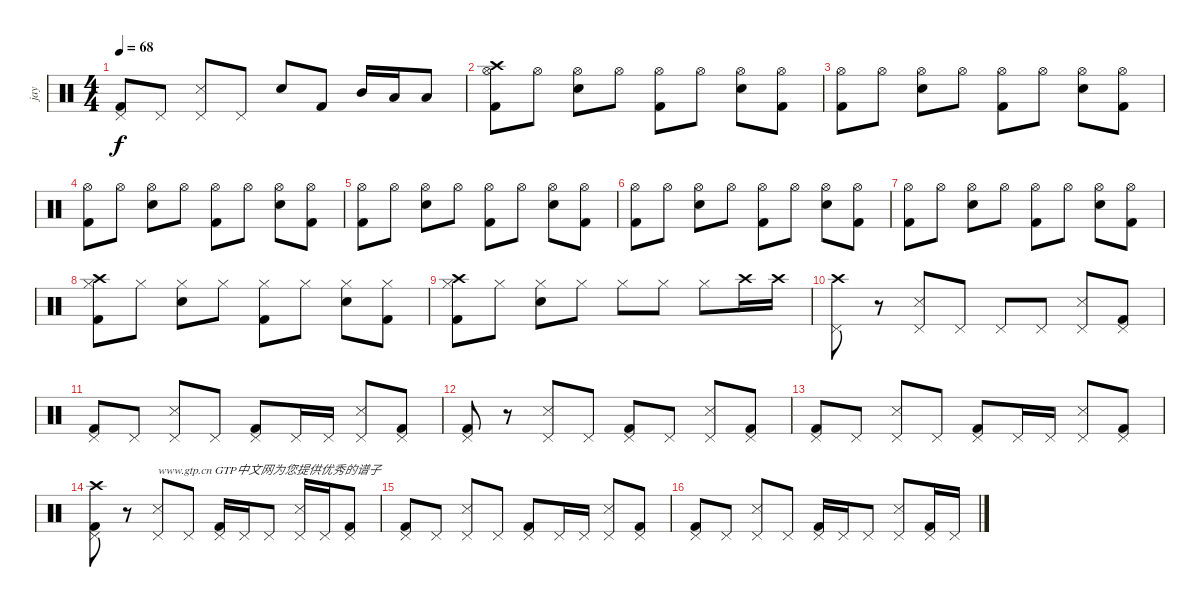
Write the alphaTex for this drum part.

\track ("jay" "jay") {instrument percussion}
\staff {score}
\articulation defaults
\ts (4 4)
\tempo 68
\clef neutral
\ks c
("Kick (hit) 2" "Pedal Hi-Hat (hit)").8{dy f} "Pedal Hi-Hat (hit)".8 ("Snare (side stick) 3" "Pedal Hi-Hat (hit)").8 "Pedal Hi-Hat (hit)".8 "Snare (hit) 2".8 "Kick (hit) 2".8 "Mid Tom (hit)".16 "Low Tom (hit)".16 "Low Floor Tom (hit)".8 |
("Crash high (hit)" "Kick (hit) 2" "Hi-Hat (open)").8 "Hi-Hat (open)".8 ("Snare (hit) 2" "Hi-Hat (open)").8 "Hi-Hat (open)".8 ("Kick (hit) 2" "Hi-Hat (open)").8 "Hi-Hat (open)".8 ("Snare (hit) 2" "Hi-Hat (open)").8 ("Kick (hit) 2" "Hi-Hat (open)").8 |
("Kick (hit) 2" "Hi-Hat (open)").8 "Hi-Hat (open)".8 ("Snare (hit) 2" "Hi-Hat (open)").8 "Hi-Hat (open)".8 ("Kick (hit) 2" "Hi-Hat (open)").8 "Hi-Hat (open)".8 ("Snare (hit) 2" "Hi-Hat (open)").8 ("Kick (hit) 2" "Hi-Hat (open)").8 |
("Kick (hit) 2" "Hi-Hat (open)").8 "Hi-Hat (open)".8 ("Snare (hit) 2" "Hi-Hat (open)").8 "Hi-Hat (open)".8 ("Kick (hit) 2" "Hi-Hat (open)").8 "Hi-Hat (open)".8 ("Snare (hit) 2" "Hi-Hat (open)").8 ("Kick (hit) 2" "Hi-Hat (open)").8 |
("Kick (hit) 2" "Hi-Hat (open)").8 "Hi-Hat (open)".8 ("Snare (hit) 2" "Hi-Hat (open)").8 "Hi-Hat (open)".8 ("Kick (hit) 2" "Hi-Hat (open)").8 "Hi-Hat (open)".8 ("Snare (hit) 2" "Hi-Hat (open)").8 ("Kick (hit) 2" "Hi-Hat (open)").8 |
("Kick (hit) 2" "Hi-Hat (open)").8 "Hi-Hat (open)".8 ("Snare (hit) 2" "Hi-Hat (open)").8 "Hi-Hat (open)".8 ("Kick (hit) 2" "Hi-Hat (open)").8 "Hi-Hat (open)".8 ("Snare (hit) 2" "Hi-Hat (open)").8 ("Kick (hit) 2" "Hi-Hat (open)").8 |
("Kick (hit) 2" "Hi-Hat (open)").8 "Hi-Hat (open)".8 ("Snare (hit) 2" "Hi-Hat (open)").8 "Hi-Hat (open)".8 ("Kick (hit) 2" "Hi-Hat (open)").8 "Hi-Hat (open)".8 ("Snare (hit) 2" "Hi-Hat (open)").8 ("Kick (hit) 2" "Hi-Hat (open)").8 |
("Crash high (hit)" "Kick (hit) 2" "Hi-Hat (closed)").8 "Hi-Hat (closed)".8 ("Snare (hit) 2" "Hi-Hat (closed)").8 "Hi-Hat (closed)".8 ("Kick (hit) 2" "Hi-Hat (closed)").8 "Hi-Hat (closed)".8 ("Snare (hit) 2" "Hi-Hat (closed)").8 ("Kick (hit) 2" "Hi-Hat (closed)").8 |
("Crash high (hit)" "Kick (hit) 2" "Hi-Hat (closed)").8 "Hi-Hat (closed)".8 ("Snare (hit) 2" "Hi-Hat (closed)").8 "Hi-Hat (closed)".8 "Hi-Hat (closed)".8 "Hi-Hat (closed)".8 "Hi-Hat (closed)".8 "Crash high (hit)".16 "Crash high (hit)".16 |
("Crash high (hit)" "Pedal Hi-Hat (hit)").8 r.8 ("Snare (side stick) 3" "Pedal Hi-Hat (hit)").8 "Pedal Hi-Hat (hit)".8 "Pedal Hi-Hat (hit)".8 "Pedal Hi-Hat (hit)".8 ("Snare (side stick) 3" "Pedal Hi-Hat (hit)").8 ("Kick (hit) 2" "Pedal Hi-Hat (hit)").8 |
("Kick (hit) 2" "Pedal Hi-Hat (hit)").8 "Pedal Hi-Hat (hit)".8 ("Snare (side stick) 3" "Pedal Hi-Hat (hit)").8 "Pedal Hi-Hat (hit)".8 ("Kick (hit) 2" "Pedal Hi-Hat (hit)").8 "Pedal Hi-Hat (hit)".16 "Pedal Hi-Hat (hit)".16 ("Snare (side stick) 3" "Pedal Hi-Hat (hit)").8 ("Kick (hit) 2" "Pedal Hi-Hat (hit)").8 |
("Kick (hit) 2" "Pedal Hi-Hat (hit)").8 r.8 ("Snare (side stick) 3" "Pedal Hi-Hat (hit)").8 "Pedal Hi-Hat (hit)".8 ("Kick (hit) 2" "Pedal Hi-Hat (hit)").8 "Pedal Hi-Hat (hit)".8 ("Snare (side stick) 3" "Pedal Hi-Hat (hit)").8 ("Kick (hit) 2" "Pedal Hi-Hat (hit)").8 |
("Kick (hit) 2" "Pedal Hi-Hat (hit)").8 "Pedal Hi-Hat (hit)".8 ("Snare (side stick) 3" "Pedal Hi-Hat (hit)").8 "Pedal Hi-Hat (hit)".8 ("Kick (hit) 2" "Pedal Hi-Hat (hit)").8 "Pedal Hi-Hat (hit)".16 "Pedal Hi-Hat (hit)".16 ("Snare (side stick) 3" "Pedal Hi-Hat (hit)").8 ("Kick (hit) 2" "Pedal Hi-Hat (hit)").8 |
("Crash high (hit)" "Kick (hit) 2" "Pedal Hi-Hat (hit)").8 r.8 ("Snare (side stick) 3" "Pedal Hi-Hat (hit)").8{txt "www.gtp.cn GTP中文网为您提供优秀的谱子"} "Pedal Hi-Hat (hit)".8 ("Kick (hit) 2" "Pedal Hi-Hat (hit)").16 "Pedal Hi-Hat (hit)".16 "Pedal Hi-Hat (hit)".8 ("Snare (side stick) 3" "Pedal Hi-Hat (hit)").16 "Pedal Hi-Hat (hit)".16 ("Kick (hit) 2" "Pedal Hi-Hat (hit)").8 |
("Kick (hit) 2" "Pedal Hi-Hat (hit)").8 "Pedal Hi-Hat (hit)".8 ("Snare (side stick) 3" "Pedal Hi-Hat (hit)").8 "Pedal Hi-Hat (hit)".8 ("Kick (hit) 2" "Pedal Hi-Hat (hit)").8 "Pedal Hi-Hat (hit)".16 "Pedal Hi-Hat (hit)".16 ("Snare (side stick) 3" "Pedal Hi-Hat (hit)").8 ("Kick (hit) 2" "Pedal Hi-Hat (hit)").8 |
("Kick (hit) 2" "Pedal Hi-Hat (hit)").8 "Pedal Hi-Hat (hit)".8 ("Snare (side stick) 3" "Pedal Hi-Hat (hit)").8 "Pedal Hi-Hat (hit)".8 ("Kick (hit) 2" "Pedal Hi-Hat (hit)").16 "Pedal Hi-Hat (hit)".16 "Pedal Hi-Hat (hit)".8 ("Snare (side stick) 3" "Pedal Hi-Hat (hit)").8 ("Kick (hit) 2" "Pedal Hi-Hat (hit)").16 "Pedal Hi-Hat (hit)".16
